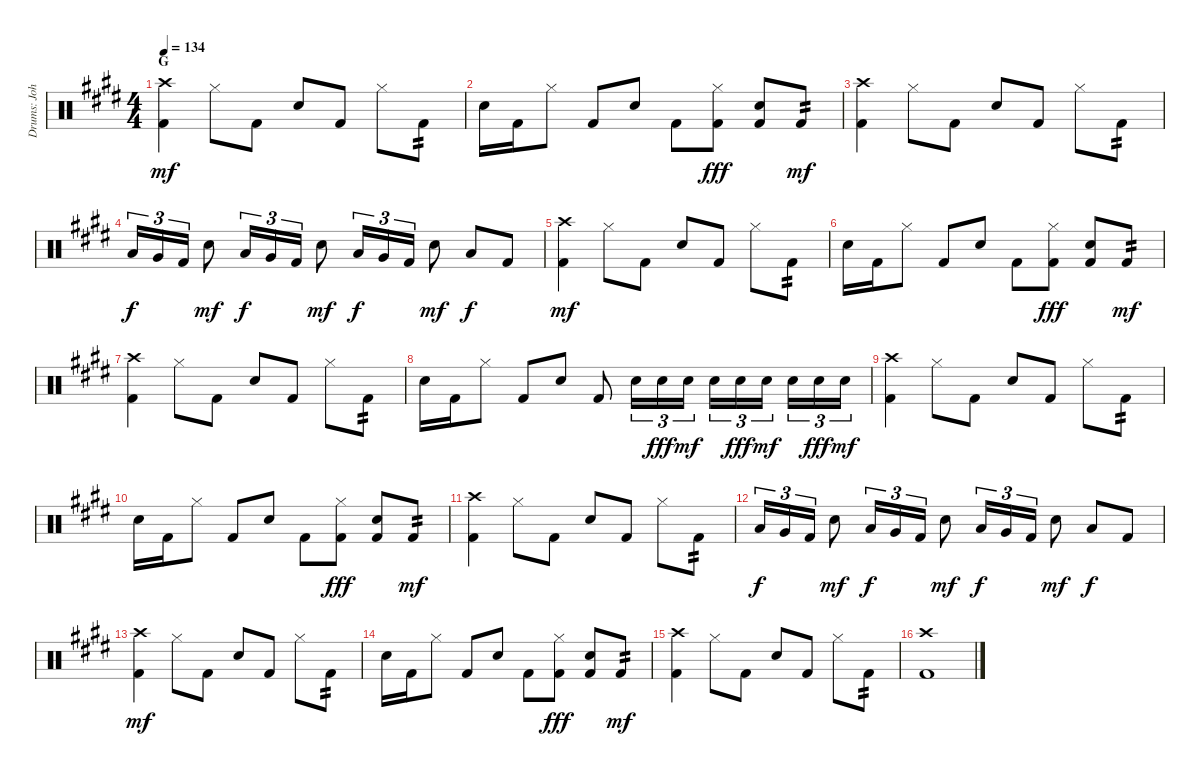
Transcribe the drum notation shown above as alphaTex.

\track ("Drums: John" "Drums: Joh") {instrument percussion}
\staff {score}
\articulation defaults
\ts (4 4)
\section ("" "G")
\tempo 134
\clef neutral
\ks e
("Crash high (hit)" "Kick (hit) 2").4{dy mf} "Hi-Hat (closed)".8 "Kick (hit) 2".8 "Electric Snare (hit)".8 "Kick (hit) 2".8 "Hi-Hat (closed)".8 "Kick (hit) 2".8{tp 2} |
"Electric Snare (hit)".16 "Kick (hit) 2".16 "Hi-Hat (closed)".8 "Kick (hit) 2".8 "Electric Snare (hit)".8 "Kick (hit) 2".8 ("Hi-Hat (closed)" "Kick (hit) 2").8{dy fff} ("Electric Snare (hit)" "Kick (hit) 2").8 "Kick (hit) 2".8{tp 2 dy mf} |
("Crash high (hit)" "Kick (hit) 2").4 "Hi-Hat (closed)".8 "Kick (hit) 2".8 "Electric Snare (hit)".8 "Kick (hit) 2".8 "Hi-Hat (closed)".8 "Kick (hit) 2".8{tp 2} |
"Low Tom (hit)".16{tu (3 2) dy f} "Very Low Tom (hit)".16{tu (3 2)} "Kick (hit) 2".16{tu (3 2)} "Electric Snare (hit)".8{dy mf} "Low Tom (hit)".16{tu (3 2) dy f} "Very Low Tom (hit)".16{tu (3 2)} "Kick (hit) 2".16{tu (3 2)} "Electric Snare (hit)".8{dy mf} "Low Tom (hit)".16{tu (3 2) dy f} "Very Low Tom (hit)".16{tu (3 2)} "Kick (hit) 2".16{tu (3 2)} "Electric Snare (hit)".8{dy mf} "Low Tom (hit)".8{dy f} "Kick (hit) 2".8 |
("Crash high (hit)" "Kick (hit) 2").4{dy mf} "Hi-Hat (closed)".8 "Kick (hit) 2".8 "Electric Snare (hit)".8 "Kick (hit) 2".8 "Hi-Hat (closed)".8 "Kick (hit) 2".8{tp 2} |
"Electric Snare (hit)".16 "Kick (hit) 2".16 "Hi-Hat (closed)".8 "Kick (hit) 2".8 "Electric Snare (hit)".8 "Kick (hit) 2".8 ("Hi-Hat (closed)" "Kick (hit) 2").8{dy fff} ("Electric Snare (hit)" "Kick (hit) 2").8 "Kick (hit) 2".8{tp 2 dy mf} |
("Crash high (hit)" "Kick (hit) 2").4 "Hi-Hat (closed)".8 "Kick (hit) 2".8 "Electric Snare (hit)".8 "Kick (hit) 2".8 "Hi-Hat (closed)".8 "Kick (hit) 2".8{tp 2} |
"Electric Snare (hit)".16 "Kick (hit) 2".16 "Hi-Hat (closed)".8 "Kick (hit) 2".8 "Electric Snare (hit)".8 "Kick (hit) 2".8 "Electric Snare (hit)".16{tu (3 2)} "Electric Snare (hit)".16{tu (3 2) dy fff} "Electric Snare (hit)".16{tu (3 2) dy mf} "Electric Snare (hit)".16{tu (3 2)} "Electric Snare (hit)".16{tu (3 2) dy fff} "Electric Snare (hit)".16{tu (3 2) dy mf beam splitsecondary} "Electric Snare (hit)".16{tu (3 2)} "Electric Snare (hit)".16{tu (3 2) dy fff} "Electric Snare (hit)".16{tu (3 2) dy mf} |
("Crash high (hit)" "Kick (hit) 2").4 "Hi-Hat (closed)".8 "Kick (hit) 2".8 "Electric Snare (hit)".8 "Kick (hit) 2".8 "Hi-Hat (closed)".8 "Kick (hit) 2".8{tp 2} |
"Electric Snare (hit)".16 "Kick (hit) 2".16 "Hi-Hat (closed)".8 "Kick (hit) 2".8 "Electric Snare (hit)".8 "Kick (hit) 2".8 ("Hi-Hat (closed)" "Kick (hit) 2").8{dy fff} ("Electric Snare (hit)" "Kick (hit) 2").8 "Kick (hit) 2".8{tp 2 dy mf} |
("Crash high (hit)" "Kick (hit) 2").4 "Hi-Hat (closed)".8 "Kick (hit) 2".8 "Electric Snare (hit)".8 "Kick (hit) 2".8 "Hi-Hat (closed)".8 "Kick (hit) 2".8{tp 2} |
"Low Tom (hit)".16{tu (3 2) dy f} "Very Low Tom (hit)".16{tu (3 2)} "Kick (hit) 2".16{tu (3 2)} "Electric Snare (hit)".8{dy mf} "Low Tom (hit)".16{tu (3 2) dy f} "Very Low Tom (hit)".16{tu (3 2)} "Kick (hit) 2".16{tu (3 2)} "Electric Snare (hit)".8{dy mf} "Low Tom (hit)".16{tu (3 2) dy f} "Very Low Tom (hit)".16{tu (3 2)} "Kick (hit) 2".16{tu (3 2)} "Electric Snare (hit)".8{dy mf} "Low Tom (hit)".8{dy f} "Kick (hit) 2".8 |
("Crash high (hit)" "Kick (hit) 2").4{dy mf} "Hi-Hat (closed)".8 "Kick (hit) 2".8 "Electric Snare (hit)".8 "Kick (hit) 2".8 "Hi-Hat (closed)".8 "Kick (hit) 2".8{tp 2} |
"Electric Snare (hit)".16 "Kick (hit) 2".16 "Hi-Hat (closed)".8 "Kick (hit) 2".8 "Electric Snare (hit)".8 "Kick (hit) 2".8 ("Hi-Hat (closed)" "Kick (hit) 2").8{dy fff} ("Electric Snare (hit)" "Kick (hit) 2").8 "Kick (hit) 2".8{tp 2 dy mf} |
("Crash high (hit)" "Kick (hit) 2").4 "Hi-Hat (closed)".8 "Kick (hit) 2".8 "Electric Snare (hit)".8 "Kick (hit) 2".8 "Hi-Hat (closed)".8 "Kick (hit) 2".8{tp 2} |
("Crash high (hit)" "Kick (hit) 2").1
